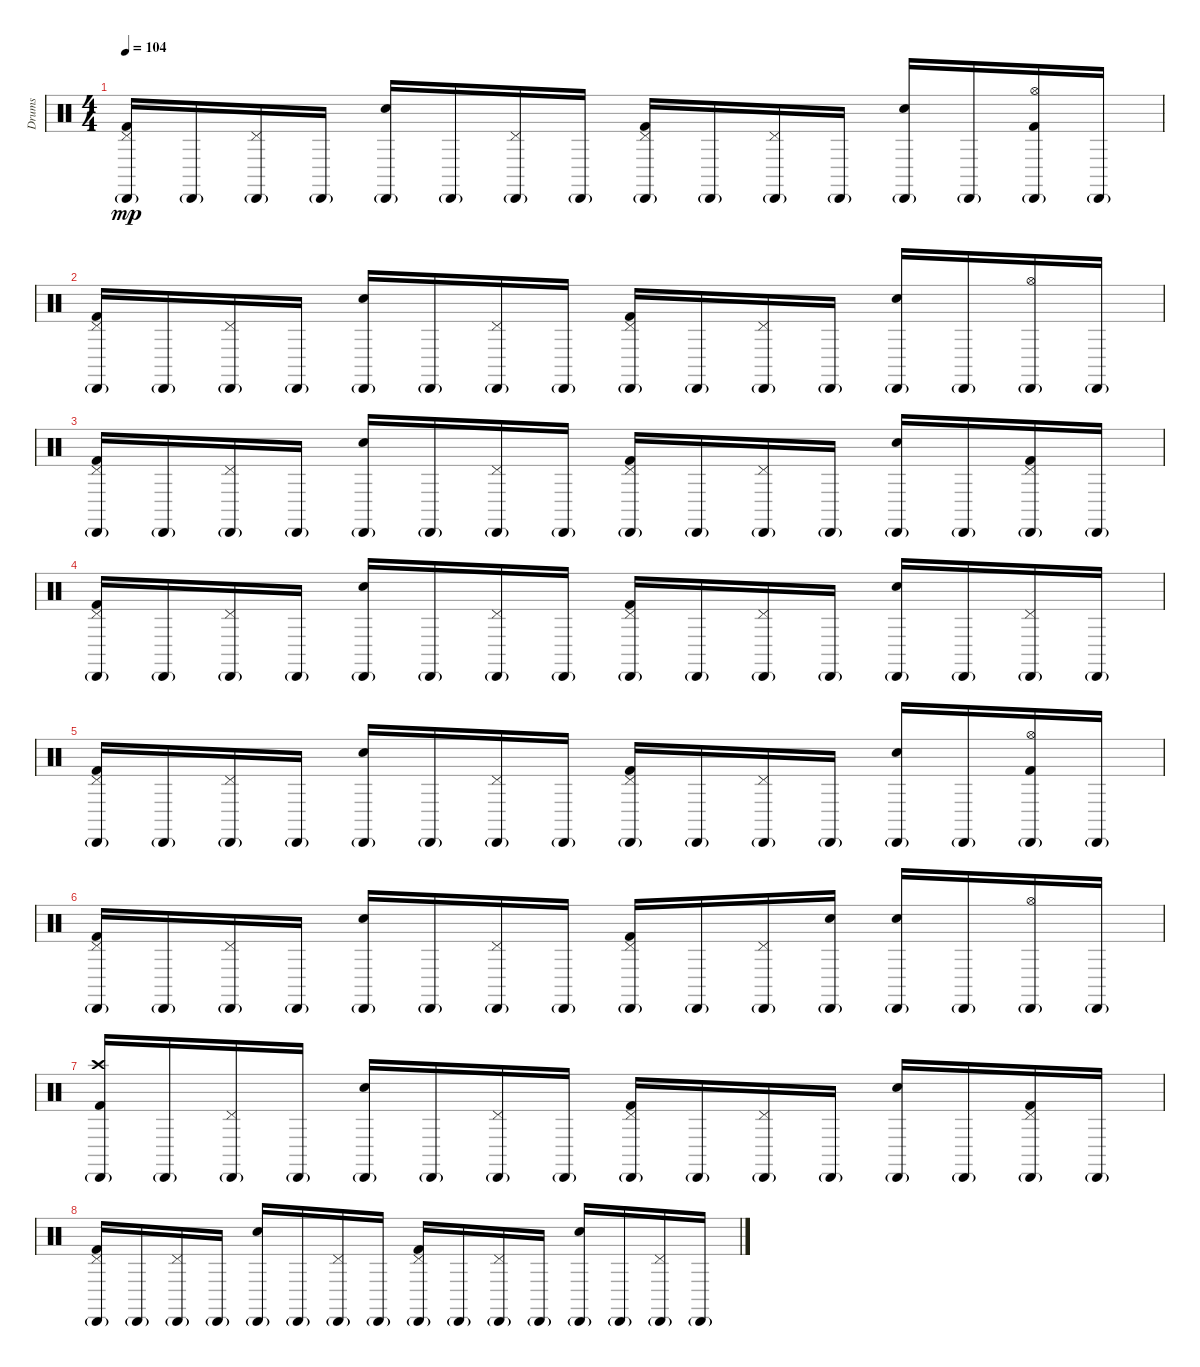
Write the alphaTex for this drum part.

\track ("Drums" "Drums") {instrument percussion}
\staff {score}
\articulation defaults
\ts (4 4)
\tempo 104
\clef neutral
\ks c
("Pedal Hi-Hat (hit)" "Cabasa (hit)"{g} "Kick (hit) 2").16{dy mp} "Cabasa (hit)"{g}.16 ("Pedal Hi-Hat (hit)" "Cabasa (hit)"{g}).16 "Cabasa (hit)"{g}.16 ("Snare (hit) 2" "Cabasa (hit)"{g}).16 "Cabasa (hit)"{g}.16 ("Pedal Hi-Hat (hit)" "Cabasa (hit)"{g}).16 "Cabasa (hit)"{g}.16 ("Pedal Hi-Hat (hit)" "Cabasa (hit)"{g} "Kick (hit) 2").16 "Cabasa (hit)"{g}.16 ("Pedal Hi-Hat (hit)" "Cabasa (hit)"{g}).16 "Cabasa (hit)"{g}.16 ("Snare (hit) 2" "Cabasa (hit)"{g}).16 "Cabasa (hit)"{g}.16 ("Hi-Hat (open)" "Cabasa (hit)"{g} "Kick (hit) 2").16 "Cabasa (hit)"{g}.16 |
("Pedal Hi-Hat (hit)" "Cabasa (hit)"{g} "Kick (hit) 2").16 "Cabasa (hit)"{g}.16 ("Pedal Hi-Hat (hit)" "Cabasa (hit)"{g}).16 "Cabasa (hit)"{g}.16 ("Snare (hit) 2" "Cabasa (hit)"{g}).16 "Cabasa (hit)"{g}.16 ("Pedal Hi-Hat (hit)" "Cabasa (hit)"{g}).16 "Cabasa (hit)"{g}.16 ("Pedal Hi-Hat (hit)" "Cabasa (hit)"{g} "Kick (hit) 2").16 "Cabasa (hit)"{g}.16 ("Pedal Hi-Hat (hit)" "Cabasa (hit)"{g}).16 "Cabasa (hit)"{g}.16 ("Snare (hit) 2" "Cabasa (hit)"{g}).16 "Cabasa (hit)"{g}.16 ("Hi-Hat (open)" "Cabasa (hit)"{g}).16 "Cabasa (hit)"{g}.16 |
("Pedal Hi-Hat (hit)" "Cabasa (hit)"{g} "Kick (hit) 2").16 "Cabasa (hit)"{g}.16 ("Pedal Hi-Hat (hit)" "Cabasa (hit)"{g}).16 "Cabasa (hit)"{g}.16 ("Snare (hit) 2" "Cabasa (hit)"{g}).16 "Cabasa (hit)"{g}.16 ("Pedal Hi-Hat (hit)" "Cabasa (hit)"{g}).16 "Cabasa (hit)"{g}.16 ("Pedal Hi-Hat (hit)" "Cabasa (hit)"{g} "Kick (hit) 2").16 "Cabasa (hit)"{g}.16 ("Pedal Hi-Hat (hit)" "Cabasa (hit)"{g}).16 "Cabasa (hit)"{g}.16 ("Snare (hit) 2" "Cabasa (hit)"{g}).16 "Cabasa (hit)"{g}.16 ("Pedal Hi-Hat (hit)" "Cabasa (hit)"{g} "Kick (hit) 2").16 "Cabasa (hit)"{g}.16 |
("Pedal Hi-Hat (hit)" "Cabasa (hit)"{g} "Kick (hit) 2").16 "Cabasa (hit)"{g}.16 ("Pedal Hi-Hat (hit)" "Cabasa (hit)"{g}).16 "Cabasa (hit)"{g}.16 ("Snare (hit) 2" "Cabasa (hit)"{g}).16 "Cabasa (hit)"{g}.16 ("Pedal Hi-Hat (hit)" "Cabasa (hit)"{g}).16 "Cabasa (hit)"{g}.16 ("Pedal Hi-Hat (hit)" "Cabasa (hit)"{g} "Kick (hit) 2").16 "Cabasa (hit)"{g}.16 ("Pedal Hi-Hat (hit)" "Cabasa (hit)"{g}).16 "Cabasa (hit)"{g}.16 ("Snare (hit) 2" "Cabasa (hit)"{g}).16 "Cabasa (hit)"{g}.16 ("Pedal Hi-Hat (hit)" "Cabasa (hit)"{g}).16 "Cabasa (hit)"{g}.16 |
("Pedal Hi-Hat (hit)" "Cabasa (hit)"{g} "Kick (hit) 2").16 "Cabasa (hit)"{g}.16 ("Pedal Hi-Hat (hit)" "Cabasa (hit)"{g}).16 "Cabasa (hit)"{g}.16 ("Snare (hit) 2" "Cabasa (hit)"{g}).16 "Cabasa (hit)"{g}.16 ("Pedal Hi-Hat (hit)" "Cabasa (hit)"{g}).16 "Cabasa (hit)"{g}.16 ("Pedal Hi-Hat (hit)" "Cabasa (hit)"{g} "Kick (hit) 2").16 "Cabasa (hit)"{g}.16 ("Pedal Hi-Hat (hit)" "Cabasa (hit)"{g}).16 "Cabasa (hit)"{g}.16 ("Snare (hit) 2" "Cabasa (hit)"{g}).16 "Cabasa (hit)"{g}.16 ("Hi-Hat (open)" "Cabasa (hit)"{g} "Kick (hit) 2").16 "Cabasa (hit)"{g}.16 |
("Pedal Hi-Hat (hit)" "Cabasa (hit)"{g} "Kick (hit) 2").16 "Cabasa (hit)"{g}.16 ("Pedal Hi-Hat (hit)" "Cabasa (hit)"{g}).16 "Cabasa (hit)"{g}.16 ("Snare (hit) 2" "Cabasa (hit)"{g}).16 "Cabasa (hit)"{g}.16 ("Pedal Hi-Hat (hit)" "Cabasa (hit)"{g}).16 "Cabasa (hit)"{g}.16 ("Pedal Hi-Hat (hit)" "Cabasa (hit)"{g} "Kick (hit) 2").16 "Cabasa (hit)"{g}.16 ("Pedal Hi-Hat (hit)" "Cabasa (hit)"{g}).16 ("Snare (hit) 2" "Cabasa (hit)"{g}).16 ("Snare (hit) 2" "Cabasa (hit)"{g}).16 "Cabasa (hit)"{g}.16 ("Hi-Hat (open)" "Cabasa (hit)"{g}).16 "Cabasa (hit)"{g}.16 |
("Crash high (hit)" "Cabasa (hit)"{g} "Kick (hit) 2").16 "Cabasa (hit)"{g}.16 ("Pedal Hi-Hat (hit)" "Cabasa (hit)"{g}).16 "Cabasa (hit)"{g}.16 ("Snare (hit) 2" "Cabasa (hit)"{g}).16 "Cabasa (hit)"{g}.16 ("Pedal Hi-Hat (hit)" "Cabasa (hit)"{g}).16 "Cabasa (hit)"{g}.16 ("Pedal Hi-Hat (hit)" "Cabasa (hit)"{g} "Kick (hit) 2").16 "Cabasa (hit)"{g}.16 ("Pedal Hi-Hat (hit)" "Cabasa (hit)"{g}).16 "Cabasa (hit)"{g}.16 ("Snare (hit) 2" "Cabasa (hit)"{g}).16 "Cabasa (hit)"{g}.16 ("Pedal Hi-Hat (hit)" "Cabasa (hit)"{g} "Kick (hit) 2").16 "Cabasa (hit)"{g}.16 |
("Pedal Hi-Hat (hit)" "Cabasa (hit)"{g} "Kick (hit) 2").16 "Cabasa (hit)"{g}.16 ("Pedal Hi-Hat (hit)" "Cabasa (hit)"{g}).16 "Cabasa (hit)"{g}.16 ("Snare (hit) 2" "Cabasa (hit)"{g}).16 "Cabasa (hit)"{g}.16 ("Pedal Hi-Hat (hit)" "Cabasa (hit)"{g}).16 "Cabasa (hit)"{g}.16 ("Pedal Hi-Hat (hit)" "Cabasa (hit)"{g} "Kick (hit) 2").16 "Cabasa (hit)"{g}.16 ("Pedal Hi-Hat (hit)" "Cabasa (hit)"{g}).16 "Cabasa (hit)"{g}.16 ("Snare (hit) 2" "Cabasa (hit)"{g}).16 "Cabasa (hit)"{g}.16 ("Pedal Hi-Hat (hit)" "Cabasa (hit)"{g}).16 "Cabasa (hit)"{g}.16
